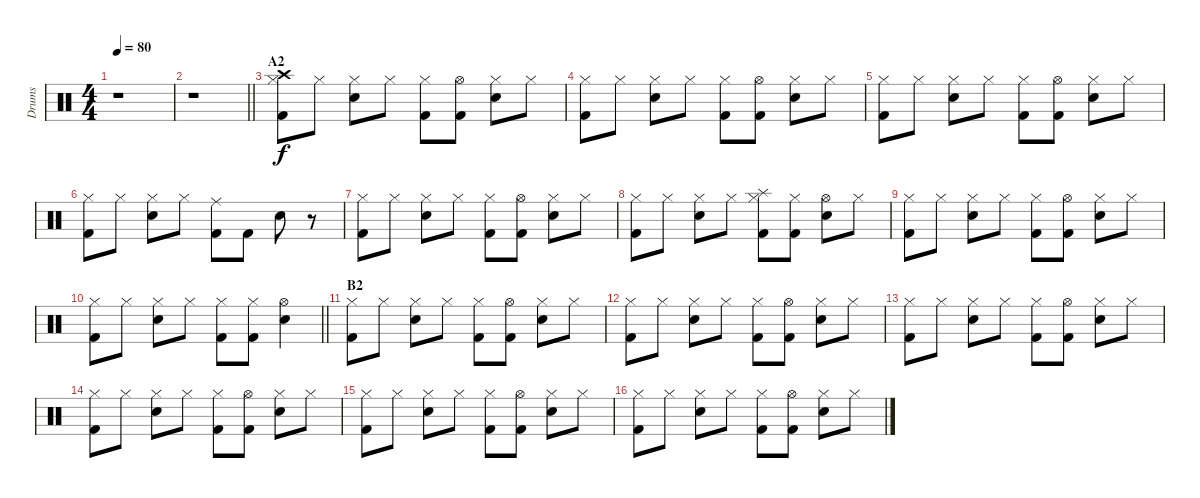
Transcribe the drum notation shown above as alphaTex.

\track ("Drums" "Drums") {instrument percussion}
\staff {score}
\articulation defaults
\ts (4 4)
\tempo 80
\clef neutral
\ks c
r.1{dy f} |
\barLineRight lightlight
r.1 |
\section ("" "A2")
("Hi-Hat (closed)" "Crash high (hit)" "Kick (hit) 2").8 "Hi-Hat (closed)".8 ("Hi-Hat (closed)" "Snare (hit) 2").8 "Hi-Hat (closed)".8 ("Hi-Hat (closed)" "Kick (hit) 2").8 ("Hi-Hat (open)" "Kick (hit) 2").8 ("Hi-Hat (closed)" "Snare (hit) 2").8 "Hi-Hat (closed)".8 |
("Hi-Hat (closed)" "Kick (hit) 2").8 "Hi-Hat (closed)".8 ("Hi-Hat (closed)" "Snare (hit) 2").8 "Hi-Hat (closed)".8 ("Hi-Hat (closed)" "Kick (hit) 2").8 ("Hi-Hat (open)" "Kick (hit) 2").8 ("Hi-Hat (closed)" "Snare (hit) 2").8 "Hi-Hat (closed)".8 |
("Hi-Hat (closed)" "Kick (hit) 2").8 "Hi-Hat (closed)".8 ("Hi-Hat (closed)" "Snare (hit) 2").8 "Hi-Hat (closed)".8 ("Hi-Hat (closed)" "Kick (hit) 2").8 ("Hi-Hat (open)" "Kick (hit) 2").8 ("Hi-Hat (closed)" "Snare (hit) 2").8 "Hi-Hat (closed)".8 |
("Hi-Hat (closed)" "Kick (hit) 2").8 "Hi-Hat (closed)".8 ("Hi-Hat (closed)" "Snare (hit) 2").8 "Hi-Hat (closed)".8 ("Ride (middle)" "Kick (hit) 2").8 "Kick (hit) 2".8 "Snare (hit) 2".8 r.8 |
("Hi-Hat (closed)" "Kick (hit) 2").8 "Hi-Hat (closed)".8 ("Hi-Hat (closed)" "Snare (hit) 2").8 "Hi-Hat (closed)".8 ("Hi-Hat (closed)" "Kick (hit) 2").8 ("Hi-Hat (open)" "Kick (hit) 2").8 ("Hi-Hat (closed)" "Snare (hit) 2").8 "Hi-Hat (closed)".8 |
("Hi-Hat (closed)" "Kick (hit) 2").8 "Hi-Hat (closed)".8 ("Hi-Hat (closed)" "Snare (hit) 2").8 "Hi-Hat (closed)".8 ("Hi-Hat (closed)" "Splash (hit)" "Kick (hit) 2").8 ("Hi-Hat (closed)" "Kick (hit) 2").8 ("Hi-Hat (open)" "Snare (hit) 2").8 "Hi-Hat (closed)".8 |
("Hi-Hat (closed)" "Kick (hit) 2").8 "Hi-Hat (closed)".8 ("Hi-Hat (closed)" "Snare (hit) 2").8 "Hi-Hat (closed)".8 ("Hi-Hat (closed)" "Kick (hit) 2").8 ("Hi-Hat (open)" "Kick (hit) 2").8 ("Hi-Hat (closed)" "Snare (hit) 2").8 "Hi-Hat (closed)".8 |
\barLineRight lightlight
("Hi-Hat (closed)" "Kick (hit) 2").8 "Hi-Hat (closed)".8 ("Hi-Hat (closed)" "Snare (hit) 2").8 "Hi-Hat (closed)".8 ("Hi-Hat (closed)" "Kick (hit) 2").8 ("Hi-Hat (closed)" "Kick (hit) 2").8 ("Hi-Hat (open)" "Snare (hit) 2").4 |
\section ("" "B2")
("Hi-Hat (closed)" "Kick (hit) 2").8 "Hi-Hat (closed)".8 ("Hi-Hat (closed)" "Snare (hit) 2").8 "Hi-Hat (closed)".8 ("Hi-Hat (closed)" "Kick (hit) 2").8 ("Hi-Hat (open)" "Kick (hit) 2").8 ("Hi-Hat (closed)" "Snare (hit) 2").8 "Hi-Hat (closed)".8 |
("Hi-Hat (closed)" "Kick (hit) 2").8 "Hi-Hat (closed)".8 ("Hi-Hat (closed)" "Snare (hit) 2").8 "Hi-Hat (closed)".8 ("Hi-Hat (closed)" "Kick (hit) 2").8 ("Hi-Hat (open)" "Kick (hit) 2").8 ("Hi-Hat (closed)" "Snare (hit) 2").8 "Hi-Hat (closed)".8 |
("Hi-Hat (closed)" "Kick (hit) 2").8 "Hi-Hat (closed)".8 ("Hi-Hat (closed)" "Snare (hit) 2").8 "Hi-Hat (closed)".8 ("Hi-Hat (closed)" "Kick (hit) 2").8 ("Hi-Hat (open)" "Kick (hit) 2").8 ("Hi-Hat (closed)" "Snare (hit) 2").8 "Hi-Hat (closed)".8 |
("Hi-Hat (closed)" "Kick (hit) 2").8 "Hi-Hat (closed)".8 ("Hi-Hat (closed)" "Snare (hit) 2").8 "Hi-Hat (closed)".8 ("Hi-Hat (closed)" "Kick (hit) 2").8 ("Hi-Hat (open)" "Kick (hit) 2").8 ("Hi-Hat (closed)" "Snare (hit) 2").8 "Hi-Hat (closed)".8 |
("Hi-Hat (closed)" "Kick (hit) 2").8 "Hi-Hat (closed)".8 ("Hi-Hat (closed)" "Snare (hit) 2").8 "Hi-Hat (closed)".8 ("Hi-Hat (closed)" "Kick (hit) 2").8 ("Hi-Hat (open)" "Kick (hit) 2").8 ("Hi-Hat (closed)" "Snare (hit) 2").8 "Hi-Hat (closed)".8 |
("Hi-Hat (closed)" "Kick (hit) 2").8 "Hi-Hat (closed)".8 ("Hi-Hat (closed)" "Snare (hit) 2").8 "Hi-Hat (closed)".8 ("Hi-Hat (closed)" "Kick (hit) 2").8 ("Hi-Hat (open)" "Kick (hit) 2").8 ("Hi-Hat (closed)" "Snare (hit) 2").8 "Hi-Hat (closed)".8
